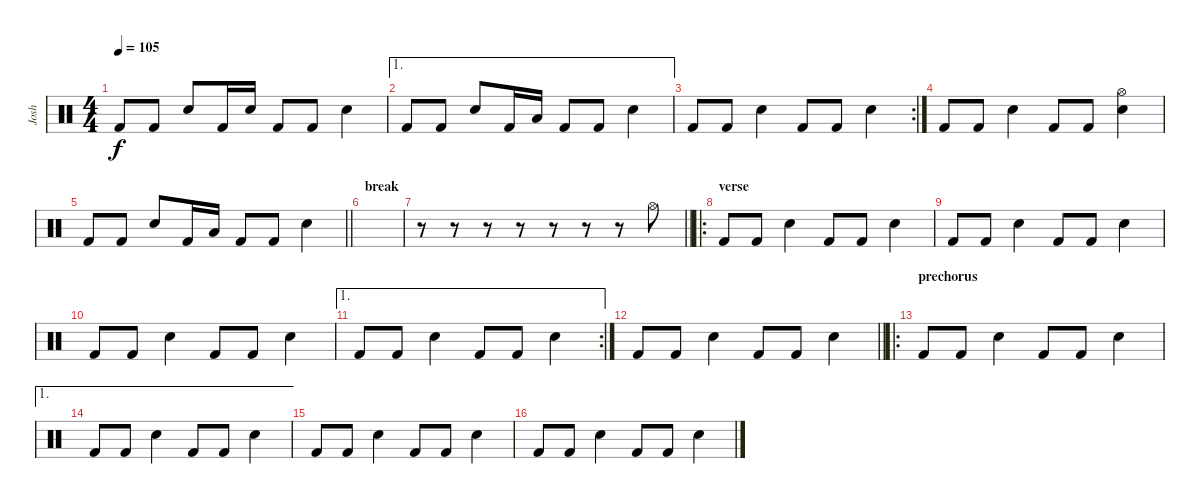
\track ("Josh" "Josh") {instrument percussion}
\staff {score}
\articulation defaults
\ts (4 4)
\tempo 105
\clef neutral
\ks c "Kick (hit) 2".8{dy f} "Kick (hit) 2".8 "Electric Snare (hit)".8 "Kick (hit) 2".16 "Electric Snare (hit)".16 "Kick (hit) 2".8 "Kick (hit) 2".8 "Electric Snare (hit)".4
|
\ae 1 "Kick (hit) 2".8 "Kick (hit) 2".8 "Electric Snare (hit)".8 "Kick (hit) 2".16 "Low Tom (hit)".16 "Kick (hit) 2".8 "Kick (hit) 2".8 "Electric Snare (hit)".4
|
\rc 2 "Kick (hit) 2".8 "Kick (hit) 2".8 "Electric Snare (hit)".4 "Kick (hit) 2".8 "Kick (hit) 2".8 "Electric Snare (hit)".4
|
"Kick (hit) 2".8 "Kick (hit) 2".8 "Electric Snare (hit)".4 "Kick (hit) 2".8 "Kick (hit) 2".8 ("Hi-Hat (open)" "Electric Snare (hit)").4 |
\barLineRight lightlight "Kick (hit) 2".8 "Kick (hit) 2".8 "Electric Snare (hit)".8 "Kick (hit) 2".16 "Low Tom (hit)".16 "Kick (hit) 2".8 "Kick (hit) 2".8 "Electric Snare (hit)".4
|
\section ("" "break")
|
\barLineRight lightlight
r.8 r.8 r.8 r.8 r.8 r.8 r.8 "Hi-Hat (open)".8 |
\ro
\section ("" "verse")
"Kick (hit) 2".8 "Kick (hit) 2".8 "Electric Snare (hit)".4 "Kick (hit) 2".8 "Kick (hit) 2".8 "Electric Snare (hit)".4 |
"Kick (hit) 2".8 "Kick (hit) 2".8 "Electric Snare (hit)".4 "Kick (hit) 2".8 "Kick (hit) 2".8 "Electric Snare (hit)".4 |
"Kick (hit) 2".8 "Kick (hit) 2".8 "Electric Snare (hit)".4 "Kick (hit) 2".8 "Kick (hit) 2".8 "Electric Snare (hit)".4 |
\ae 1
\rc 2 "Kick (hit) 2".8 "Kick (hit) 2".8 "Electric Snare (hit)".4 "Kick (hit) 2".8 "Kick (hit) 2".8 "Electric Snare (hit)".4
|
\barLineRight lightlight "Kick (hit) 2".8 "Kick (hit) 2".8 "Electric Snare (hit)".4 "Kick (hit) 2".8 "Kick (hit) 2".8 "Electric Snare (hit)".4
|
\ro
\section ("" "prechorus")
"Kick (hit) 2".8 "Kick (hit) 2".8 "Electric Snare (hit)".4 "Kick (hit) 2".8 "Kick (hit) 2".8 "Electric Snare (hit)".4 |
\ae 1 "Kick (hit) 2".8 "Kick (hit) 2".8 "Electric Snare (hit)".4 "Kick (hit) 2".8 "Kick (hit) 2".8 "Electric Snare (hit)".4
|
"Kick (hit) 2".8 "Kick (hit) 2".8 "Electric Snare (hit)".4 "Kick (hit) 2".8 "Kick (hit) 2".8 "Electric Snare (hit)".4 |
"Kick (hit) 2".8 "Kick (hit) 2".8 "Electric Snare (hit)".4 "Kick (hit) 2".8 "Kick (hit) 2".8 "Electric Snare (hit)".4
